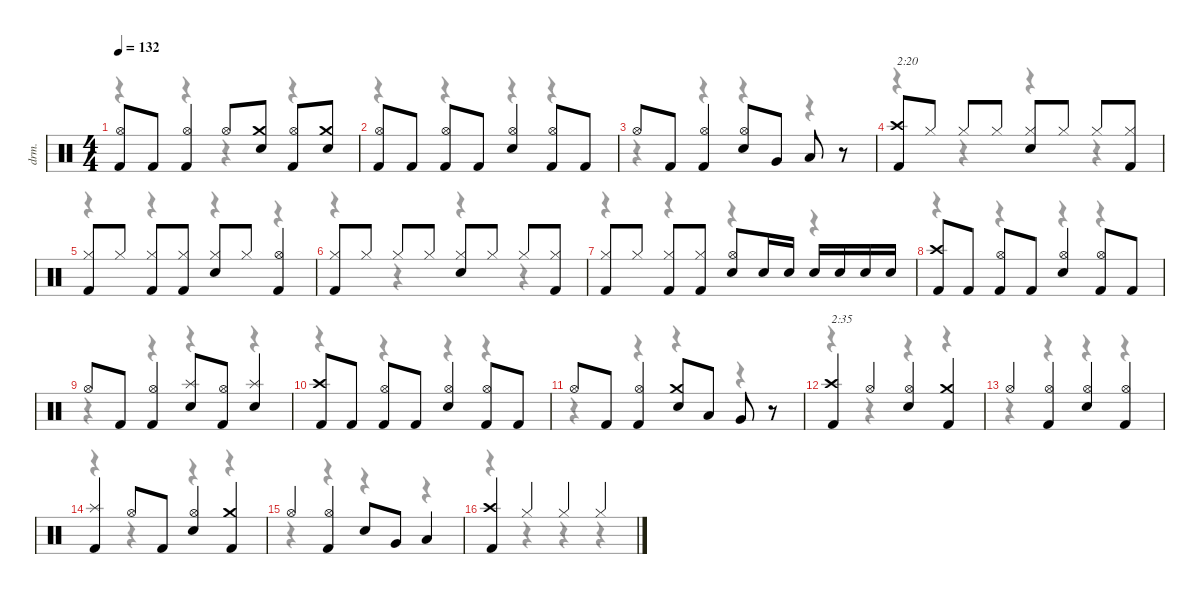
\defaultSystemsLayout 4
\hideDynamics
\bracketExtendMode nobrackets
\otherSystemsTrackNameOrientation horizontal
\track ("Drums" "drm.") {instrument percussion}
\staff {score}
\articulation defaults
\voice
\ts (4 4)
\tempo 132
\clef neutral
\ks c
("Hi-Hat (open)" "Kick (hit) 2").8{dy f} "Kick (hit) 2".8{dy fff} ("Hi-Hat (open)" "Kick (hit) 2").4{dy f} "Hi-Hat (open)".8 ("Crash medium (hit)" "Snare (hit) 2").8 ("Hi-Hat (open)" "Kick (hit) 2").8 ("Crash medium (hit)" "Snare (hit) 2").8 |
("Hi-Hat (open)" "Kick (hit) 2").8 "Kick (hit) 2".8{dy fff} ("Hi-Hat (open)" "Kick (hit) 2").8{dy f} "Kick (hit) 2".8{dy fff} ("Hi-Hat (open)" "Snare (hit) 2").4{dy f} ("Hi-Hat (open)" "Kick (hit) 2").8 "Kick (hit) 2".8{dy fff} |
"Hi-Hat (open)".8{dy f} "Kick (hit) 2".8{dy fff} ("Hi-Hat (open)" "Kick (hit) 2").4{dy f} ("Hi-Hat (open)" "Snare (hit) 2").8 "Very Low Tom (hit)".8{dy fff} "Low Floor Tom (hit)".8 r.8 |
("Crash high (hit)" "Kick (hit) 2").8{txt "2:20" dy f} "Hi-Hat (closed)".8 "Hi-Hat (closed)".8 "Hi-Hat (closed)".8 ("Hi-Hat (closed)" "Snare (hit) 2").8 "Hi-Hat (closed)".8 "Hi-Hat (closed)".8 ("Hi-Hat (closed)" "Kick (hit) 2").8 |
("Hi-Hat (closed)" "Kick (hit) 2").8 "Hi-Hat (closed)".8 ("Hi-Hat (closed)" "Kick (hit) 2").8 ("Hi-Hat (closed)" "Kick (hit) 2").8 ("Hi-Hat (closed)" "Snare (hit) 2").8 "Hi-Hat (closed)".8 ("Hi-Hat (open)" "Kick (hit) 2").4 |
("Hi-Hat (closed)" "Kick (hit) 2").8 "Hi-Hat (closed)".8 "Hi-Hat (closed)".8 "Hi-Hat (closed)".8 ("Hi-Hat (closed)" "Snare (hit) 2").8 "Hi-Hat (closed)".8 "Hi-Hat (closed)".8 ("Hi-Hat (closed)" "Kick (hit) 2").8 |
("Hi-Hat (closed)" "Kick (hit) 2").8 "Hi-Hat (closed)".8 ("Hi-Hat (closed)" "Kick (hit) 2").8 ("Hi-Hat (closed)" "Kick (hit) 2").8 ("Hi-Hat (open)" "Snare (hit) 2").8 "Snare (hit) 2".16{dy fff} "Snare (hit) 2".16 "Snare (hit) 2".16 "Snare (hit) 2".16 "Snare (hit) 2".16 "Snare (hit) 2".16 |
("Crash high (hit)" "Kick (hit) 2").8{dy f} "Kick (hit) 2".8{dy fff} ("Hi-Hat (open)" "Kick (hit) 2").8{dy f} "Kick (hit) 2".8{dy fff} ("Hi-Hat (open)" "Snare (hit) 2").4{dy f} ("Hi-Hat (open)" "Kick (hit) 2").8 "Kick (hit) 2".8{dy fff} |
"Hi-Hat (open)".8{dy f} "Kick (hit) 2".8{dy fff} ("Hi-Hat (open)" "Kick (hit) 2").4{dy f} ("Splash (hit)" "Snare (hit) 2").8 ("Hi-Hat (open)" "Kick (hit) 2").8 ("Splash (hit)" "Snare (hit) 2").4 |
("Crash high (hit)" "Kick (hit) 2").8 "Kick (hit) 2".8{dy fff} ("Hi-Hat (open)" "Kick (hit) 2").8{dy f} "Kick (hit) 2".8{dy fff} ("Hi-Hat (open)" "Snare (hit) 2").4{dy f} ("Hi-Hat (open)" "Kick (hit) 2").8 "Kick (hit) 2".8{dy fff} |
"Hi-Hat (open)".8{dy f} "Kick (hit) 2".8{dy fff} ("Hi-Hat (open)" "Kick (hit) 2").4{dy f} ("Crash medium (hit)" "Snare (hit) 2").8 "Low Tom (hit)".8{dy fff} "Very Low Tom (hit)".8 r.8 |
("Crash high (hit)" "Kick (hit) 2").4{txt "2:35" dy f} "Hi-Hat (open)".4 ("Hi-Hat (open)" "Snare (hit) 2").4 ("Crash medium (hit)" "Kick (hit) 2").4 |
"Hi-Hat (open)".4 ("Hi-Hat (open)" "Kick (hit) 2").4 ("Hi-Hat (open)" "Snare (hit) 2").4 ("Hi-Hat (open)" "Kick (hit) 2").4 |
("Splash (hit)" "Kick (hit) 2").4 "Hi-Hat (open)".8 "Kick (hit) 2".8{dy fff} ("Hi-Hat (open)" "Snare (hit) 2").4{dy f} ("Crash medium (hit)" "Kick (hit) 2").4 |
"Hi-Hat (open)".4 ("Hi-Hat (open)" "Kick (hit) 2").4 "Snare (hit) 2".8{dy fff} "Very Low Tom (hit)".8 "Low Floor Tom (hit)".4 |
("Crash high (hit)" "Kick (hit) 2").4{dy f} "Hi-Hat (closed)".4 "Hi-Hat (closed)".4 "Hi-Hat (closed)".4
\voice
\clef neutral
\ottava regular
\simile none
\ks c
r.4{dy mf} r.4 r.4 r.4 |
r.4 r.4 r.4 r.4 |
r.4 r.4 r.4 r.4 |
r.4 r.4 r.4 r.4 |
r.4 r.4 r.4 r.4 |
r.4 r.4 r.4 r.4 |
r.4 r.4 r.4 r.4 |
r.4 r.4 r.4 r.4 |
r.4 r.4 r.4 r.4 |
r.4 r.4 r.4 r.4 |
r.4 r.4 r.4 r.4 |
r.4 r.4 r.4 r.4 |
r.4 r.4 r.4 r.4 |
r.4 r.4 r.4 r.4 |
r.4 r.4 r.4 r.4 |
r.4 r.4 r.4 r.4
